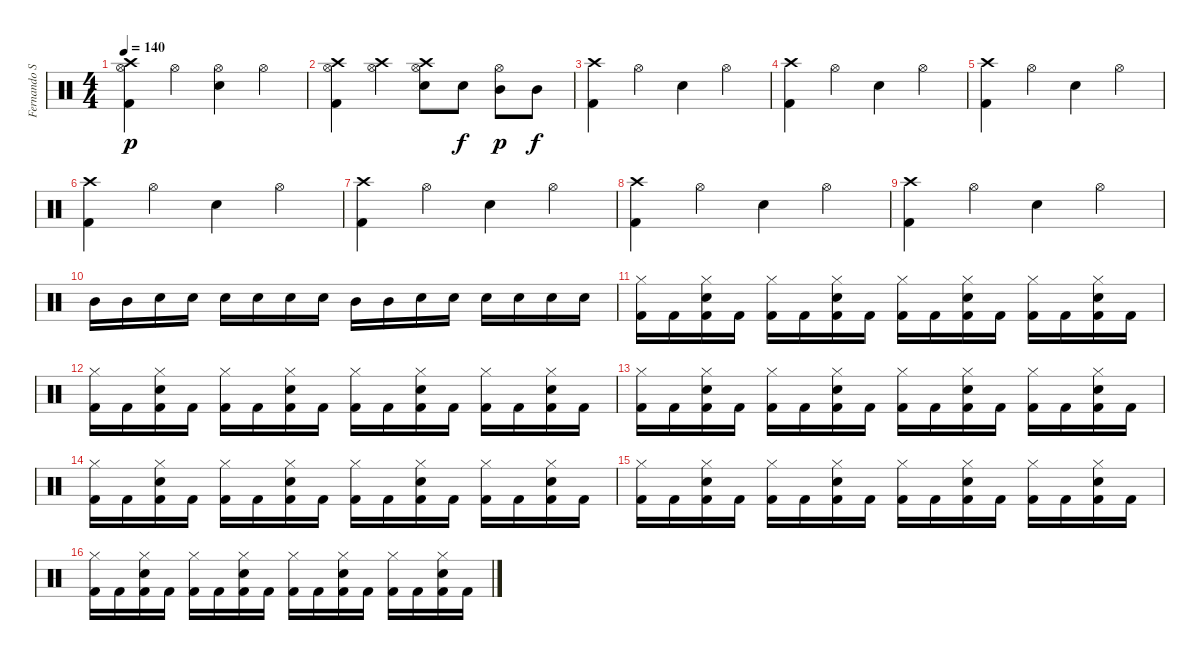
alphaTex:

\track ("Fernando Scarcella" "Fernando S") {instrument percussion}
\staff {score}
\articulation defaults
\ts (4 4)
\tempo 140
\clef neutral
\ks c
("Hi-Hat (open)" "Kick (hit) 2" "Crash high (hit)").4{dy p} "Hi-Hat (open)".4 ("Hi-Hat (open)" "Snare (hit) 2").4 "Hi-Hat (open)".4 |
("Hi-Hat (open)" "Kick (hit) 2" "Crash high (hit)").4 ("Hi-Hat (open)" "Crash high (hit)").4 ("Hi-Hat (open)" "Snare (hit) 2" "Crash high (hit)").8 "Snare (hit) 2".8{dy f} ("Hi-Hat (open)" "Mid Tom (hit)").8{dy p} "Mid Tom (hit)".8{dy f} |
("Crash high (hit)" "Kick (hit) 2").4 "Hi-Hat (open)".4 "Snare (hit) 2".4 "Hi-Hat (open)".4 |
("Crash high (hit)" "Kick (hit) 2").4 "Hi-Hat (open)".4 "Snare (hit) 2".4 "Hi-Hat (open)".4 |
("Crash high (hit)" "Kick (hit) 2").4 "Hi-Hat (open)".4 "Snare (hit) 2".4 "Hi-Hat (open)".4 |
("Crash high (hit)" "Kick (hit) 2").4 "Hi-Hat (open)".4 "Snare (hit) 2".4 "Hi-Hat (open)".4 |
("Crash high (hit)" "Kick (hit) 2").4 "Hi-Hat (open)".4 "Snare (hit) 2".4 "Hi-Hat (open)".4 |
("Crash high (hit)" "Kick (hit) 2").4 "Hi-Hat (open)".4 "Snare (hit) 2".4 "Hi-Hat (open)".4 |
("Crash high (hit)" "Kick (hit) 2").4 "Hi-Hat (open)".4 "Snare (hit) 2".4 "Hi-Hat (open)".4 |
"Mid Tom (hit)".16 "Mid Tom (hit)".16 "Snare (hit) 2".16 "Snare (hit) 2".16 "Snare (hit) 2".16 "Snare (hit) 2".16 "Snare (hit) 2".16 "Snare (hit) 2".16 "Mid Tom (hit)".16 "Mid Tom (hit)".16 "Snare (hit) 2".16 "Snare (hit) 2".16 "Snare (hit) 2".16 "Snare (hit) 2".16 "Snare (hit) 2".16 "Snare (hit) 2".16 |
("Hi-Hat (closed)" "Kick (hit) 2").16 "Kick (hit) 2".16 ("Hi-Hat (closed)" "Snare (hit) 2" "Kick (hit) 2").16 "Kick (hit) 2".16 ("Hi-Hat (closed)" "Kick (hit) 2").16 "Kick (hit) 2".16 ("Hi-Hat (closed)" "Snare (hit) 2" "Kick (hit) 2").16 "Kick (hit) 2".16 ("Hi-Hat (closed)" "Kick (hit) 2").16 "Kick (hit) 2".16 ("Hi-Hat (closed)" "Snare (hit) 2" "Kick (hit) 2").16 "Kick (hit) 2".16 ("Hi-Hat (closed)" "Kick (hit) 2").16 "Kick (hit) 2".16 ("Hi-Hat (closed)" "Snare (hit) 2" "Kick (hit) 2").16 "Kick (hit) 2".16 |
("Hi-Hat (closed)" "Kick (hit) 2").16 "Kick (hit) 2".16 ("Hi-Hat (closed)" "Snare (hit) 2" "Kick (hit) 2").16 "Kick (hit) 2".16 ("Hi-Hat (closed)" "Kick (hit) 2").16 "Kick (hit) 2".16 ("Hi-Hat (closed)" "Snare (hit) 2" "Kick (hit) 2").16 "Kick (hit) 2".16 ("Hi-Hat (closed)" "Kick (hit) 2").16 "Kick (hit) 2".16 ("Hi-Hat (closed)" "Snare (hit) 2" "Kick (hit) 2").16 "Kick (hit) 2".16 ("Hi-Hat (closed)" "Kick (hit) 2").16 "Kick (hit) 2".16 ("Hi-Hat (closed)" "Snare (hit) 2" "Kick (hit) 2").16 "Kick (hit) 2".16 |
("Hi-Hat (closed)" "Kick (hit) 2").16 "Kick (hit) 2".16 ("Hi-Hat (closed)" "Snare (hit) 2" "Kick (hit) 2").16 "Kick (hit) 2".16 ("Hi-Hat (closed)" "Kick (hit) 2").16 "Kick (hit) 2".16 ("Hi-Hat (closed)" "Snare (hit) 2" "Kick (hit) 2").16 "Kick (hit) 2".16 ("Hi-Hat (closed)" "Kick (hit) 2").16 "Kick (hit) 2".16 ("Hi-Hat (closed)" "Snare (hit) 2" "Kick (hit) 2").16 "Kick (hit) 2".16 ("Hi-Hat (closed)" "Kick (hit) 2").16 "Kick (hit) 2".16 ("Hi-Hat (closed)" "Snare (hit) 2" "Kick (hit) 2").16 "Kick (hit) 2".16 |
("Hi-Hat (closed)" "Kick (hit) 2").16 "Kick (hit) 2".16 ("Hi-Hat (closed)" "Snare (hit) 2" "Kick (hit) 2").16 "Kick (hit) 2".16 ("Hi-Hat (closed)" "Kick (hit) 2").16 "Kick (hit) 2".16 ("Hi-Hat (closed)" "Snare (hit) 2" "Kick (hit) 2").16 "Kick (hit) 2".16 ("Hi-Hat (closed)" "Kick (hit) 2").16 "Kick (hit) 2".16 ("Hi-Hat (closed)" "Snare (hit) 2" "Kick (hit) 2").16 "Kick (hit) 2".16 ("Hi-Hat (closed)" "Kick (hit) 2").16 "Kick (hit) 2".16 ("Hi-Hat (closed)" "Snare (hit) 2" "Kick (hit) 2").16 "Kick (hit) 2".16 |
("Hi-Hat (closed)" "Kick (hit) 2").16 "Kick (hit) 2".16 ("Hi-Hat (closed)" "Snare (hit) 2" "Kick (hit) 2").16 "Kick (hit) 2".16 ("Hi-Hat (closed)" "Kick (hit) 2").16 "Kick (hit) 2".16 ("Hi-Hat (closed)" "Snare (hit) 2" "Kick (hit) 2").16 "Kick (hit) 2".16 ("Hi-Hat (closed)" "Kick (hit) 2").16 "Kick (hit) 2".16 ("Hi-Hat (closed)" "Snare (hit) 2" "Kick (hit) 2").16 "Kick (hit) 2".16 ("Hi-Hat (closed)" "Kick (hit) 2").16 "Kick (hit) 2".16 ("Hi-Hat (closed)" "Snare (hit) 2" "Kick (hit) 2").16 "Kick (hit) 2".16 |
("Hi-Hat (closed)" "Kick (hit) 2").16 "Kick (hit) 2".16 ("Hi-Hat (closed)" "Snare (hit) 2" "Kick (hit) 2").16 "Kick (hit) 2".16 ("Hi-Hat (closed)" "Kick (hit) 2").16 "Kick (hit) 2".16 ("Hi-Hat (closed)" "Snare (hit) 2" "Kick (hit) 2").16 "Kick (hit) 2".16 ("Hi-Hat (closed)" "Kick (hit) 2").16 "Kick (hit) 2".16 ("Hi-Hat (closed)" "Snare (hit) 2" "Kick (hit) 2").16 "Kick (hit) 2".16 ("Hi-Hat (closed)" "Kick (hit) 2").16 "Kick (hit) 2".16 ("Hi-Hat (closed)" "Snare (hit) 2" "Kick (hit) 2").16 "Kick (hit) 2".16
